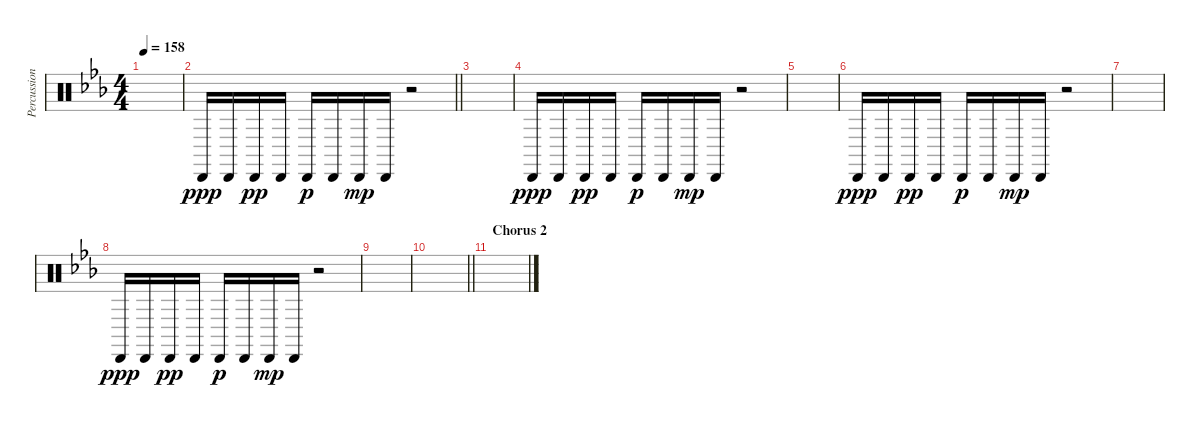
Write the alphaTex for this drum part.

\track ("Percussion" "Percussion") {instrument percussion}
\staff {score}
\articulation defaults
\ts (4 4)
\tempo 158
\clef neutral
\ks eb
|
\barLineRight lightlight "Cabasa (hit)".16{dy ppp} "Cabasa (hit)".16 "Cabasa (hit)".16{dy pp} "Cabasa (hit)".16 "Cabasa (hit)".16{dy p} "Cabasa (hit)".16 "Cabasa (hit)".16{dy mp} "Cabasa (hit)".16
r.2 |
|
"Cabasa (hit)".16{dy ppp} "Cabasa (hit)".16 "Cabasa (hit)".16{dy pp} "Cabasa (hit)".16 "Cabasa (hit)".16{dy p} "Cabasa (hit)".16 "Cabasa (hit)".16{dy mp} "Cabasa (hit)".16 r.2 |
|
"Cabasa (hit)".16{dy ppp} "Cabasa (hit)".16 "Cabasa (hit)".16{dy pp} "Cabasa (hit)".16 "Cabasa (hit)".16{dy p} "Cabasa (hit)".16 "Cabasa (hit)".16{dy mp} "Cabasa (hit)".16 r.2 |
|
"Cabasa (hit)".16{dy ppp} "Cabasa (hit)".16 "Cabasa (hit)".16{dy pp} "Cabasa (hit)".16 "Cabasa (hit)".16{dy p} "Cabasa (hit)".16 "Cabasa (hit)".16{dy mp} "Cabasa (hit)".16 r.2 |
|
\barLineRight lightlight
|
\section ("" "Chorus 2")
